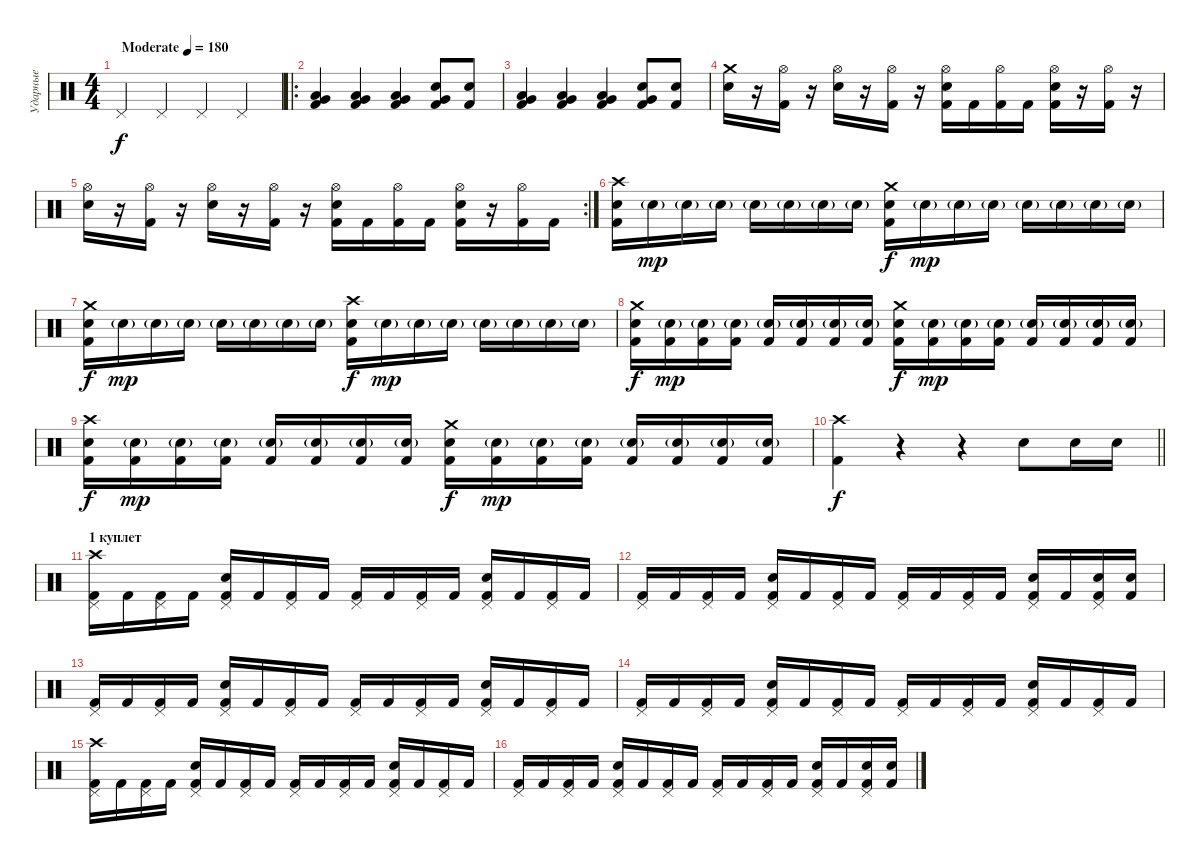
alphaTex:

\track ("Ударные" "Ударные") {instrument percussion}
\staff {score}
\articulation defaults
\ts (4 4)
\tempo (180 "Moderate")
\clef neutral
\ks c "Pedal Hi-Hat (hit)".4{dy f} "Pedal Hi-Hat (hit)".4 "Pedal Hi-Hat (hit)".4 "Pedal Hi-Hat (hit)".4
|
\ro
("Low Floor Tom (hit)" "Very Low Tom (hit)" "Kick (hit) 2").4 ("Very Low Tom (hit)" "Low Floor Tom (hit)" "Kick (hit) 2").4 ("Low Floor Tom (hit)" "Very Low Tom (hit)" "Kick (hit) 2").4 ("Very Low Tom (hit)" "Snare (hit) 2" "Kick (hit) 2").8 ("Snare (hit) 2" "Kick (hit) 2").8 |
("Low Floor Tom (hit)" "Very Low Tom (hit)" "Kick (hit) 2").4 ("Very Low Tom (hit)" "Low Floor Tom (hit)" "Kick (hit) 2").4 ("Low Floor Tom (hit)" "Very Low Tom (hit)" "Kick (hit) 2").4 ("Very Low Tom (hit)" "Snare (hit) 2" "Kick (hit) 2").8 ("Snare (hit) 2" "Kick (hit) 2").8 |
("Snare (hit) 2" "Crash medium (hit)").16 r.16 ("Hi-Hat (open)" "Kick (hit) 2").16 r.16 ("Snare (hit) 2" "Hi-Hat (open)").16 r.16 ("Hi-Hat (open)" "Kick (hit) 2").16 r.16 ("Snare (hit) 2" "Hi-Hat (open)" "Kick (hit) 2").16 "Kick (hit) 2".16 ("Hi-Hat (open)" "Kick (hit) 2").16 "Kick (hit) 2".16 ("Snare (hit) 2" "Hi-Hat (open)" "Kick (hit) 2").16 r.16 ("Hi-Hat (open)" "Kick (hit) 2").16 r.16 |
\rc 2
("Snare (hit) 2" "Hi-Hat (open)").16 r.16 ("Hi-Hat (open)" "Kick (hit) 2").16 r.16 ("Snare (hit) 2" "Hi-Hat (open)").16 r.16 ("Hi-Hat (open)" "Kick (hit) 2").16 r.16 ("Snare (hit) 2" "Hi-Hat (open)" "Kick (hit) 2").16 "Kick (hit) 2".16 ("Hi-Hat (open)" "Kick (hit) 2").16 "Kick (hit) 2".16 ("Snare (hit) 2" "Hi-Hat (open)" "Kick (hit) 2").16 r.16 ("Hi-Hat (open)" "Kick (hit) 2").16 "Kick (hit) 2".16 |
("Crash high (hit)" "Snare (hit) 2" "Kick (hit) 2").16 "Snare (hit) 2"{g}.16{dy mp} "Snare (hit) 2"{g}.16 "Snare (hit) 2"{g}.16 "Snare (hit) 2"{g}.16 "Snare (hit) 2"{g}.16 "Snare (hit) 2"{g}.16 "Snare (hit) 2"{g}.16 ("Crash medium (hit)" "Snare (hit) 2" "Kick (hit) 2").16{dy f} "Snare (hit) 2"{g}.16{dy mp} "Snare (hit) 2"{g}.16 "Snare (hit) 2"{g}.16 "Snare (hit) 2"{g}.16 "Snare (hit) 2"{g}.16 "Snare (hit) 2"{g}.16 "Snare (hit) 2"{g}.16 |
("Crash medium (hit)" "Snare (hit) 2" "Kick (hit) 2").16{dy f} "Snare (hit) 2"{g}.16{dy mp} "Snare (hit) 2"{g}.16 "Snare (hit) 2"{g}.16 "Snare (hit) 2"{g}.16 "Snare (hit) 2"{g}.16 "Snare (hit) 2"{g}.16 "Snare (hit) 2"{g}.16 ("Crash high (hit)" "Snare (hit) 2" "Kick (hit) 2").16{dy f} "Snare (hit) 2"{g}.16{dy mp} "Snare (hit) 2"{g}.16 "Snare (hit) 2"{g}.16 "Snare (hit) 2"{g}.16 "Snare (hit) 2"{g}.16 "Snare (hit) 2"{g}.16 "Snare (hit) 2"{g}.16 |
("Crash medium (hit)" "Snare (hit) 2" "Kick (hit) 2").16{dy f} ("Snare (hit) 2"{g} "Kick (hit) 2").16{dy mp} ("Snare (hit) 2"{g} "Kick (hit) 2").16 ("Snare (hit) 2"{g} "Kick (hit) 2").16 ("Snare (hit) 2"{g} "Kick (hit) 2").16 ("Snare (hit) 2"{g} "Kick (hit) 2").16 ("Snare (hit) 2"{g} "Kick (hit) 2").16 ("Snare (hit) 2"{g} "Kick (hit) 2").16 ("Crash medium (hit)" "Snare (hit) 2" "Kick (hit) 2").16{dy f} ("Snare (hit) 2"{g} "Kick (hit) 2").16{dy mp} ("Snare (hit) 2"{g} "Kick (hit) 2").16 ("Snare (hit) 2"{g} "Kick (hit) 2").16 ("Snare (hit) 2"{g} "Kick (hit) 2").16 ("Snare (hit) 2"{g} "Kick (hit) 2").16 ("Snare (hit) 2"{g} "Kick (hit) 2").16 ("Snare (hit) 2"{g} "Kick (hit) 2").16 |
("Crash high (hit)" "Snare (hit) 2" "Kick (hit) 2").16{dy f} ("Snare (hit) 2"{g} "Kick (hit) 2").16{dy mp} ("Snare (hit) 2"{g} "Kick (hit) 2").16 ("Snare (hit) 2"{g} "Kick (hit) 2").16 ("Snare (hit) 2"{g} "Kick (hit) 2").16 ("Snare (hit) 2"{g} "Kick (hit) 2").16 ("Snare (hit) 2"{g} "Kick (hit) 2").16 ("Snare (hit) 2"{g} "Kick (hit) 2").16 ("Crash medium (hit)" "Snare (hit) 2" "Kick (hit) 2").16{dy f} ("Snare (hit) 2"{g} "Kick (hit) 2").16{dy mp} ("Snare (hit) 2"{g} "Kick (hit) 2").16 ("Snare (hit) 2"{g} "Kick (hit) 2").16 ("Snare (hit) 2"{g} "Kick (hit) 2").16 ("Snare (hit) 2"{g} "Kick (hit) 2").16 ("Snare (hit) 2"{g} "Kick (hit) 2").16 ("Snare (hit) 2"{g} "Kick (hit) 2").16 |
\barLineRight lightlight
("Crash high (hit)" "Kick (hit) 2").4{dy f} r.4 r.4 "Snare (hit) 2".8 "Snare (hit) 2".16 "Snare (hit) 2".16 |
\section ("" "1 куплет")
("Crash high (hit)" "Pedal Hi-Hat (hit)" "Kick (hit) 2").16 "Kick (hit) 2".16 ("Pedal Hi-Hat (hit)" "Kick (hit) 2").16 "Kick (hit) 2".16 ("Snare (hit) 2" "Pedal Hi-Hat (hit)" "Kick (hit) 2").16 "Kick (hit) 2".16 ("Pedal Hi-Hat (hit)" "Kick (hit) 2").16 "Kick (hit) 2".16 ("Pedal Hi-Hat (hit)" "Kick (hit) 2").16 "Kick (hit) 2".16 ("Pedal Hi-Hat (hit)" "Kick (hit) 2").16 "Kick (hit) 2".16 ("Snare (hit) 2" "Pedal Hi-Hat (hit)" "Kick (hit) 2").16 "Kick (hit) 2".16 ("Pedal Hi-Hat (hit)" "Kick (hit) 2").16 "Kick (hit) 2".16 |
("Pedal Hi-Hat (hit)" "Kick (hit) 2").16 "Kick (hit) 2".16 ("Pedal Hi-Hat (hit)" "Kick (hit) 2").16 "Kick (hit) 2".16 ("Snare (hit) 2" "Pedal Hi-Hat (hit)" "Kick (hit) 2").16 "Kick (hit) 2".16 ("Pedal Hi-Hat (hit)" "Kick (hit) 2").16 "Kick (hit) 2".16 ("Pedal Hi-Hat (hit)" "Kick (hit) 2").16 "Kick (hit) 2".16 ("Pedal Hi-Hat (hit)" "Kick (hit) 2").16 "Kick (hit) 2".16 ("Snare (hit) 2" "Pedal Hi-Hat (hit)" "Kick (hit) 2").16 "Kick (hit) 2".16 ("Snare (hit) 2" "Pedal Hi-Hat (hit)" "Kick (hit) 2").16 ("Snare (hit) 2" "Kick (hit) 2").16 |
("Pedal Hi-Hat (hit)" "Kick (hit) 2").16 "Kick (hit) 2".16 ("Pedal Hi-Hat (hit)" "Kick (hit) 2").16 "Kick (hit) 2".16 ("Snare (hit) 2" "Pedal Hi-Hat (hit)" "Kick (hit) 2").16 "Kick (hit) 2".16 ("Pedal Hi-Hat (hit)" "Kick (hit) 2").16 "Kick (hit) 2".16 ("Pedal Hi-Hat (hit)" "Kick (hit) 2").16 "Kick (hit) 2".16 ("Pedal Hi-Hat (hit)" "Kick (hit) 2").16 "Kick (hit) 2".16 ("Snare (hit) 2" "Pedal Hi-Hat (hit)" "Kick (hit) 2").16 "Kick (hit) 2".16 ("Pedal Hi-Hat (hit)" "Kick (hit) 2").16 "Kick (hit) 2".16 |
("Pedal Hi-Hat (hit)" "Kick (hit) 2").16 "Kick (hit) 2".16 ("Pedal Hi-Hat (hit)" "Kick (hit) 2").16 "Kick (hit) 2".16 ("Snare (hit) 2" "Pedal Hi-Hat (hit)" "Kick (hit) 2").16 "Kick (hit) 2".16 ("Pedal Hi-Hat (hit)" "Kick (hit) 2").16 "Kick (hit) 2".16 ("Pedal Hi-Hat (hit)" "Kick (hit) 2").16 "Kick (hit) 2".16 ("Pedal Hi-Hat (hit)" "Kick (hit) 2").16 "Kick (hit) 2".16 ("Snare (hit) 2" "Pedal Hi-Hat (hit)" "Kick (hit) 2").16 "Kick (hit) 2".16 ("Pedal Hi-Hat (hit)" "Kick (hit) 2").16 "Kick (hit) 2".16 |
("Crash high (hit)" "Pedal Hi-Hat (hit)" "Kick (hit) 2").16 "Kick (hit) 2".16 ("Pedal Hi-Hat (hit)" "Kick (hit) 2").16 "Kick (hit) 2".16 ("Snare (hit) 2" "Pedal Hi-Hat (hit)" "Kick (hit) 2").16 "Kick (hit) 2".16 ("Pedal Hi-Hat (hit)" "Kick (hit) 2").16 "Kick (hit) 2".16 ("Pedal Hi-Hat (hit)" "Kick (hit) 2").16 "Kick (hit) 2".16 ("Pedal Hi-Hat (hit)" "Kick (hit) 2").16 "Kick (hit) 2".16 ("Snare (hit) 2" "Pedal Hi-Hat (hit)" "Kick (hit) 2").16 "Kick (hit) 2".16 ("Pedal Hi-Hat (hit)" "Kick (hit) 2").16 "Kick (hit) 2".16 |
("Pedal Hi-Hat (hit)" "Kick (hit) 2").16 "Kick (hit) 2".16 ("Pedal Hi-Hat (hit)" "Kick (hit) 2").16 "Kick (hit) 2".16 ("Snare (hit) 2" "Pedal Hi-Hat (hit)" "Kick (hit) 2").16 "Kick (hit) 2".16 ("Pedal Hi-Hat (hit)" "Kick (hit) 2").16 "Kick (hit) 2".16 ("Pedal Hi-Hat (hit)" "Kick (hit) 2").16 "Kick (hit) 2".16 ("Pedal Hi-Hat (hit)" "Kick (hit) 2").16 "Kick (hit) 2".16 ("Snare (hit) 2" "Pedal Hi-Hat (hit)" "Kick (hit) 2").16 "Kick (hit) 2".16 ("Snare (hit) 2" "Pedal Hi-Hat (hit)" "Kick (hit) 2").16 ("Snare (hit) 2" "Kick (hit) 2").16
